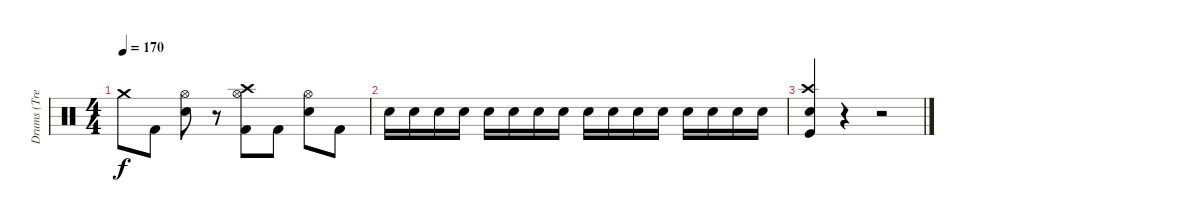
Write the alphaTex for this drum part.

\track ("Drums (Tre Cool)" "Drums (Tre") {instrument percussion}
\staff {score}
\articulation defaults
\ts (4 4)
\tempo 170
\clef neutral
\ks c "Crash medium (hit)".8{dy f} "Kick (hit) 2".8
("Hi-Hat (open)" "Electric Snare (hit)").8 r.8 ("Crash high (hit)" "Hi-Hat (open)" "Kick (hit) 2").8 "Kick (hit) 2".8 ("Hi-Hat (open)" "Electric Snare (hit)").8 "Kick (hit) 2".8 |
"Electric Snare (hit)".16 "Electric Snare (hit)".16 "Electric Snare (hit)".16 "Electric Snare (hit)".16 "Electric Snare (hit)".16 "Electric Snare (hit)".16 "Electric Snare (hit)".16 "Electric Snare (hit)".16 "Electric Snare (hit)".16 "Electric Snare (hit)".16 "Electric Snare (hit)".16 "Electric Snare (hit)".16 "Electric Snare (hit)".16 "Electric Snare (hit)".16 "Electric Snare (hit)".16 "Electric Snare (hit)".16 |
("Crash high (hit)" "Electric Snare (hit)" "Kick (hit)").4 r.4 r.2
